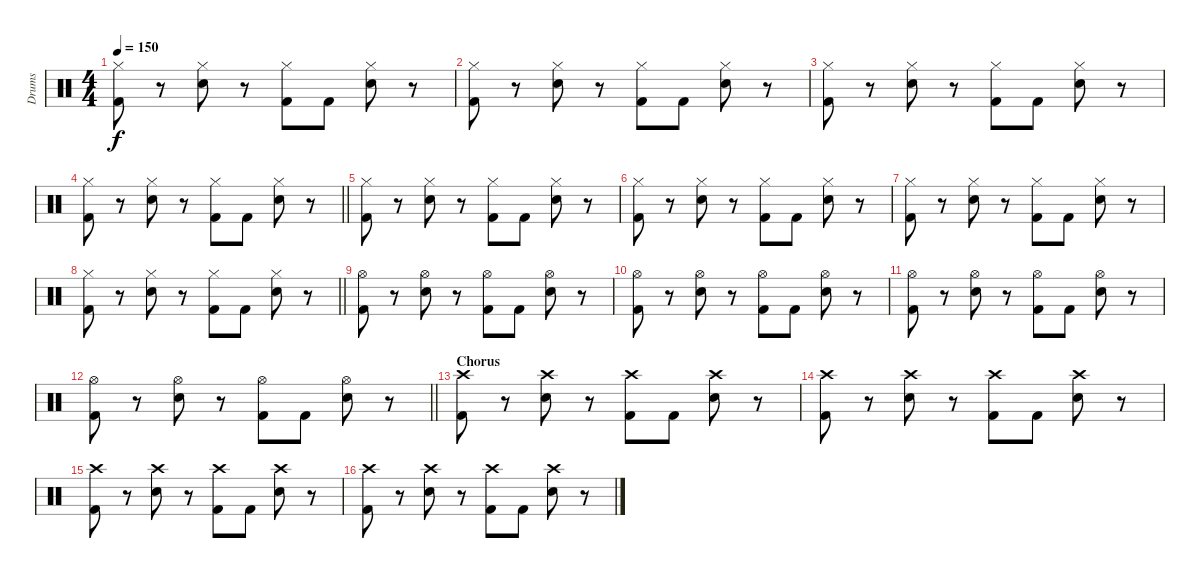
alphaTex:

\track ("Drums" "Drums") {instrument percussion}
\staff {score}
\articulation defaults
\ts (4 4)
\tempo 150
\clef neutral
\ks c
("Hi-Hat (closed)" "Kick (hit) 2").8{dy f} r.8 ("Hi-Hat (closed)" "Snare (hit) 2").8 r.8 ("Hi-Hat (closed)" "Kick (hit) 2").8 "Kick (hit) 2".8 ("Hi-Hat (closed)" "Snare (hit) 2").8 r.8 |
("Hi-Hat (closed)" "Kick (hit) 2").8 r.8 ("Hi-Hat (closed)" "Snare (hit) 2").8 r.8 ("Hi-Hat (closed)" "Kick (hit) 2").8 "Kick (hit) 2".8 ("Hi-Hat (closed)" "Snare (hit) 2").8 r.8 |
("Hi-Hat (closed)" "Kick (hit) 2").8 r.8 ("Hi-Hat (closed)" "Snare (hit) 2").8 r.8 ("Hi-Hat (closed)" "Kick (hit) 2").8 "Kick (hit) 2".8 ("Hi-Hat (closed)" "Snare (hit) 2").8 r.8 |
\barLineRight lightlight
("Hi-Hat (closed)" "Kick (hit) 2").8 r.8 ("Hi-Hat (closed)" "Snare (hit) 2").8 r.8 ("Hi-Hat (closed)" "Kick (hit) 2").8 "Kick (hit) 2".8 ("Hi-Hat (closed)" "Snare (hit) 2").8 r.8 |
("Hi-Hat (closed)" "Kick (hit) 2").8 r.8 ("Hi-Hat (closed)" "Snare (hit) 2").8 r.8 ("Hi-Hat (closed)" "Kick (hit) 2").8 "Kick (hit) 2".8 ("Hi-Hat (closed)" "Snare (hit) 2").8 r.8 |
("Hi-Hat (closed)" "Kick (hit) 2").8 r.8 ("Hi-Hat (closed)" "Snare (hit) 2").8 r.8 ("Hi-Hat (closed)" "Kick (hit) 2").8 "Kick (hit) 2".8 ("Hi-Hat (closed)" "Snare (hit) 2").8 r.8 |
("Hi-Hat (closed)" "Kick (hit) 2").8 r.8 ("Hi-Hat (closed)" "Snare (hit) 2").8 r.8 ("Hi-Hat (closed)" "Kick (hit) 2").8 "Kick (hit) 2".8 ("Hi-Hat (closed)" "Snare (hit) 2").8 r.8 |
\barLineRight lightlight
("Hi-Hat (closed)" "Kick (hit) 2").8 r.8 ("Hi-Hat (closed)" "Snare (hit) 2").8 r.8 ("Hi-Hat (closed)" "Kick (hit) 2").8 "Kick (hit) 2".8 ("Hi-Hat (closed)" "Snare (hit) 2").8 r.8 |
("Hi-Hat (open)" "Kick (hit) 2").8 r.8 ("Hi-Hat (open)" "Snare (hit) 2").8 r.8 ("Hi-Hat (open)" "Kick (hit) 2").8 "Kick (hit) 2".8 ("Hi-Hat (open)" "Snare (hit) 2").8 r.8 |
("Hi-Hat (open)" "Kick (hit) 2").8 r.8 ("Hi-Hat (open)" "Snare (hit) 2").8 r.8 ("Hi-Hat (open)" "Kick (hit) 2").8 "Kick (hit) 2".8 ("Hi-Hat (open)" "Snare (hit) 2").8 r.8 |
("Hi-Hat (open)" "Kick (hit) 2").8 r.8 ("Hi-Hat (open)" "Snare (hit) 2").8 r.8 ("Hi-Hat (open)" "Kick (hit) 2").8 "Kick (hit) 2".8 ("Hi-Hat (open)" "Snare (hit) 2").8 r.8 |
\barLineRight lightlight
("Hi-Hat (open)" "Kick (hit) 2").8 r.8 ("Hi-Hat (open)" "Snare (hit) 2").8 r.8 ("Hi-Hat (open)" "Kick (hit) 2").8 "Kick (hit) 2".8 ("Hi-Hat (open)" "Snare (hit) 2").8 r.8 |
\section ("" "Chorus")
("Crash high (hit)" "Kick (hit) 2").8 r.8 ("Crash high (hit)" "Snare (hit) 2").8 r.8 ("Crash high (hit)" "Kick (hit) 2").8 "Kick (hit) 2".8 ("Crash high (hit)" "Snare (hit) 2").8 r.8 |
("Crash high (hit)" "Kick (hit) 2").8 r.8 ("Crash high (hit)" "Snare (hit) 2").8 r.8 ("Crash high (hit)" "Kick (hit) 2").8 "Kick (hit) 2".8 ("Crash high (hit)" "Snare (hit) 2").8 r.8 |
("Crash high (hit)" "Kick (hit) 2").8 r.8 ("Crash high (hit)" "Snare (hit) 2").8 r.8 ("Crash high (hit)" "Kick (hit) 2").8 "Kick (hit) 2".8 ("Crash high (hit)" "Snare (hit) 2").8 r.8 |
("Crash high (hit)" "Kick (hit) 2").8 r.8 ("Crash high (hit)" "Snare (hit) 2").8 r.8 ("Crash high (hit)" "Kick (hit) 2").8 "Kick (hit) 2".8 ("Crash high (hit)" "Snare (hit) 2").8 r.8
